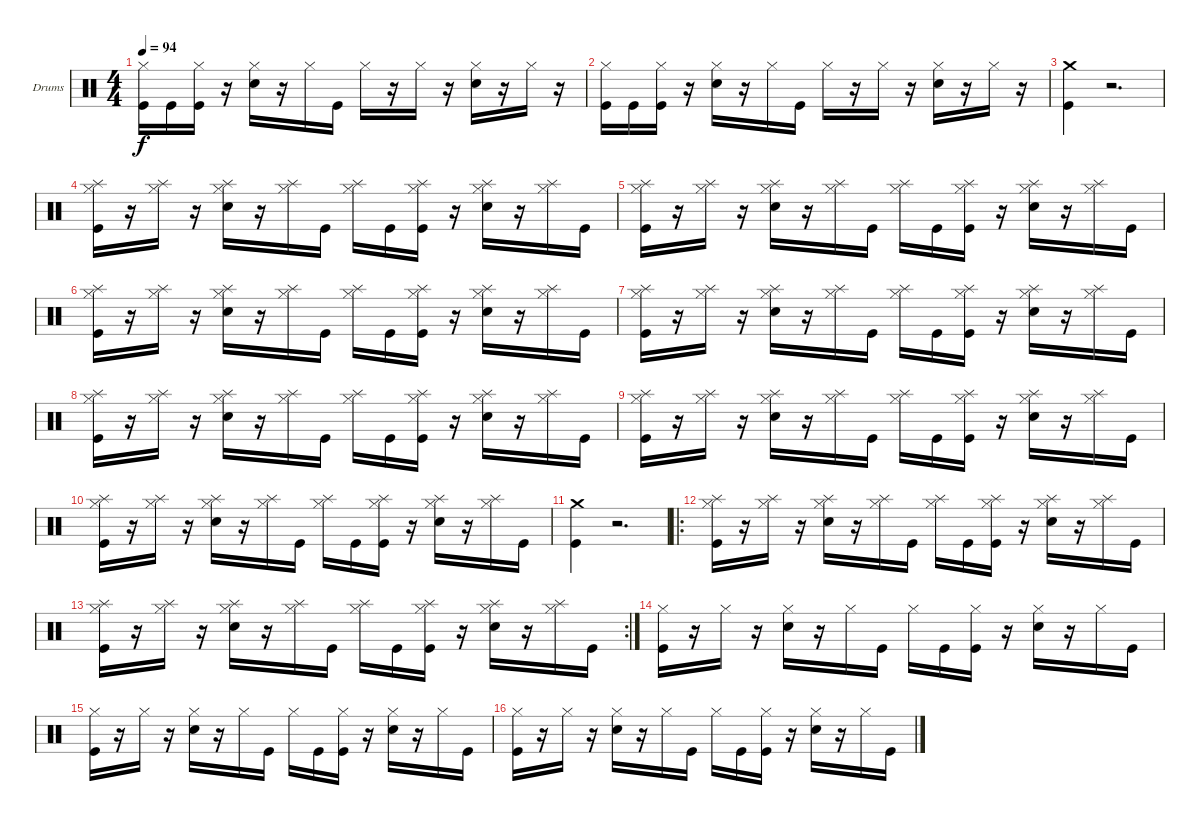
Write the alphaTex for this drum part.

\defaultSystemsLayout 4
\bracketExtendMode groupsimilarinstruments
\firstSystemTrackNameOrientation horizontal
\otherSystemsTrackNameOrientation horizontal
\track ("Lori Peters (Drums)" "Drums") {instrument percussion}
\staff {score}
\articulation defaults
\ts (4 4)
\tempo 94
\clef neutral
\ks c
("Hi-Hat (closed)" "Kick (hit)").16{dy f} "Kick (hit)".16 ("Hi-Hat (closed)" "Kick (hit)").16 r.16 ("Hi-Hat (closed)" "Snare (hit) 2").16 r.16 "Hi-Hat (closed)".16 "Kick (hit)".16 "Hi-Hat (closed)".16 r.16 "Hi-Hat (closed)".16 r.16 ("Hi-Hat (closed)" "Snare (hit) 2").16 r.16 "Hi-Hat (closed)".16 r.16 |
("Hi-Hat (closed)" "Kick (hit)").16 "Kick (hit)".16 ("Hi-Hat (closed)" "Kick (hit)").16 r.16 ("Hi-Hat (closed)" "Snare (hit) 2").16 r.16 "Hi-Hat (closed)".16 "Kick (hit)".16 "Hi-Hat (closed)".16 r.16 "Hi-Hat (closed)".16 r.16 ("Hi-Hat (closed)" "Snare (hit) 2").16 r.16 "Hi-Hat (closed)".16 r.16 |
\scale
0.333333 ("Crash medium (hit)" "Kick (hit)").4 r.2{d} |
\scale
0.333333 ("Hi-Hat (closed)" "Kick (hit)" "Splash (hit)").16 r.16 ("Hi-Hat (closed)" "Splash (hit)").16 r.16 ("Hi-Hat (closed)" "Snare (hit) 2" "Splash (hit)").16 r.16 ("Hi-Hat (closed)" "Splash (hit)").16 "Kick (hit)".16 ("Hi-Hat (closed)" "Splash (hit)").16 "Kick (hit)".16 ("Hi-Hat (closed)" "Kick (hit)" "Splash (hit)").16 r.16 ("Hi-Hat (closed)" "Snare (hit) 2" "Splash (hit)").16 r.16 ("Hi-Hat (closed)" "Splash (hit)").16 "Kick (hit)".16 |
\scale
0.333333 ("Hi-Hat (closed)" "Kick (hit)" "Splash (hit)").16 r.16 ("Hi-Hat (closed)" "Splash (hit)").16 r.16 ("Hi-Hat (closed)" "Snare (hit) 2" "Splash (hit)").16 r.16 ("Hi-Hat (closed)" "Splash (hit)").16 "Kick (hit)".16 ("Hi-Hat (closed)" "Splash (hit)").16 "Kick (hit)".16 ("Hi-Hat (closed)" "Kick (hit)" "Splash (hit)").16 r.16 ("Hi-Hat (closed)" "Snare (hit) 2" "Splash (hit)").16 r.16 ("Hi-Hat (closed)" "Splash (hit)").16 "Kick (hit)".16 |
\scale
0.333333 ("Hi-Hat (closed)" "Kick (hit)" "Splash (hit)").16 r.16 ("Hi-Hat (closed)" "Splash (hit)").16 r.16 ("Hi-Hat (closed)" "Snare (hit) 2" "Splash (hit)").16 r.16 ("Hi-Hat (closed)" "Splash (hit)").16 "Kick (hit)".16 ("Hi-Hat (closed)" "Splash (hit)").16 "Kick (hit)".16 ("Hi-Hat (closed)" "Kick (hit)" "Splash (hit)").16 r.16 ("Hi-Hat (closed)" "Snare (hit) 2" "Splash (hit)").16 r.16 ("Hi-Hat (closed)" "Splash (hit)").16 "Kick (hit)".16 |
\scale
0.333333 ("Hi-Hat (closed)" "Kick (hit)" "Splash (hit)").16 r.16 ("Hi-Hat (closed)" "Splash (hit)").16 r.16 ("Hi-Hat (closed)" "Snare (hit) 2" "Splash (hit)").16 r.16 ("Hi-Hat (closed)" "Splash (hit)").16 "Kick (hit)".16 ("Hi-Hat (closed)" "Splash (hit)").16 "Kick (hit)".16 ("Hi-Hat (closed)" "Kick (hit)" "Splash (hit)").16 r.16 ("Hi-Hat (closed)" "Snare (hit) 2" "Splash (hit)").16 r.16 ("Hi-Hat (closed)" "Splash (hit)").16 "Kick (hit)".16 |
\scale
0.333333 ("Hi-Hat (closed)" "Kick (hit)" "Splash (hit)").16 r.16 ("Hi-Hat (closed)" "Splash (hit)").16 r.16 ("Hi-Hat (closed)" "Snare (hit) 2" "Splash (hit)").16 r.16 ("Hi-Hat (closed)" "Splash (hit)").16 "Kick (hit)".16 ("Hi-Hat (closed)" "Splash (hit)").16 "Kick (hit)".16 ("Hi-Hat (closed)" "Kick (hit)" "Splash (hit)").16 r.16 ("Hi-Hat (closed)" "Snare (hit) 2" "Splash (hit)").16 r.16 ("Hi-Hat (closed)" "Splash (hit)").16 "Kick (hit)".16 |
\scale
0.333333 ("Hi-Hat (closed)" "Kick (hit)" "Splash (hit)").16 r.16 ("Hi-Hat (closed)" "Splash (hit)").16 r.16 ("Hi-Hat (closed)" "Snare (hit) 2" "Splash (hit)").16 r.16 ("Hi-Hat (closed)" "Splash (hit)").16 "Kick (hit)".16 ("Hi-Hat (closed)" "Splash (hit)").16 "Kick (hit)".16 ("Hi-Hat (closed)" "Kick (hit)" "Splash (hit)").16 r.16 ("Hi-Hat (closed)" "Snare (hit) 2" "Splash (hit)").16 r.16 ("Hi-Hat (closed)" "Splash (hit)").16 "Kick (hit)".16 |
\scale
0.333333 ("Hi-Hat (closed)" "Kick (hit)" "Splash (hit)").16 r.16 ("Hi-Hat (closed)" "Splash (hit)").16 r.16 ("Hi-Hat (closed)" "Snare (hit) 2" "Splash (hit)").16 r.16 ("Hi-Hat (closed)" "Splash (hit)").16 "Kick (hit)".16 ("Hi-Hat (closed)" "Splash (hit)").16 "Kick (hit)".16 ("Hi-Hat (closed)" "Kick (hit)" "Splash (hit)").16 r.16 ("Hi-Hat (closed)" "Snare (hit) 2" "Splash (hit)").16 r.16 ("Hi-Hat (closed)" "Splash (hit)").16 "Kick (hit)".16 |
\scale
0.333333 ("Crash medium (hit)" "Kick (hit)").4 r.2{d} |
\ro
\scale
0.343434 ("Hi-Hat (closed)" "Kick (hit)" "Splash (hit)").16 r.16 ("Hi-Hat (closed)" "Splash (hit)").16 r.16 ("Hi-Hat (closed)" "Snare (hit) 2" "Splash (hit)").16 r.16 ("Hi-Hat (closed)" "Splash (hit)").16 "Kick (hit)".16 ("Hi-Hat (closed)" "Splash (hit)").16 "Kick (hit)".16 ("Hi-Hat (closed)" "Kick (hit)" "Splash (hit)").16 r.16 ("Hi-Hat (closed)" "Snare (hit) 2" "Splash (hit)").16 r.16 ("Hi-Hat (closed)" "Splash (hit)").16 "Kick (hit)".16 |
\rc 2
\scale
0.313131 ("Hi-Hat (closed)" "Kick (hit)" "Splash (hit)").16 r.16 ("Hi-Hat (closed)" "Splash (hit)").16 r.16 ("Hi-Hat (closed)" "Snare (hit) 2" "Splash (hit)").16 r.16 ("Hi-Hat (closed)" "Splash (hit)").16 "Kick (hit)".16 ("Hi-Hat (closed)" "Splash (hit)").16 "Kick (hit)".16 ("Hi-Hat (closed)" "Kick (hit)" "Splash (hit)").16 r.16 ("Hi-Hat (closed)" "Snare (hit) 2" "Splash (hit)").16 r.16 ("Hi-Hat (closed)" "Splash (hit)").16 "Kick (hit)".16 |
\scale
0.343434 ("Hi-Hat (closed)" "Kick (hit)").16 r.16 "Hi-Hat (closed)".16 r.16 ("Hi-Hat (closed)" "Snare (hit) 2").16 r.16 "Hi-Hat (closed)".16 "Kick (hit)".16 "Hi-Hat (closed)".16 "Kick (hit)".16 ("Hi-Hat (closed)" "Kick (hit)").16 r.16 ("Hi-Hat (closed)" "Snare (hit) 2").16 r.16 "Hi-Hat (closed)".16 "Kick (hit)".16 |
\scale
0.356322 ("Hi-Hat (closed)" "Kick (hit)").16 r.16 "Hi-Hat (closed)".16 r.16 ("Hi-Hat (closed)" "Snare (hit) 2").16 r.16 "Hi-Hat (closed)".16 "Kick (hit)".16 "Hi-Hat (closed)".16 "Kick (hit)".16 ("Hi-Hat (closed)" "Kick (hit)").16 r.16 ("Hi-Hat (closed)" "Snare (hit) 2").16 r.16 "Hi-Hat (closed)".16 "Kick (hit)".16 |
("Hi-Hat (closed)" "Kick (hit)").16 r.16 "Hi-Hat (closed)".16 r.16 ("Hi-Hat (closed)" "Snare (hit) 2").16 r.16 "Hi-Hat (closed)".16 "Kick (hit)".16 "Hi-Hat (closed)".16 "Kick (hit)".16 ("Hi-Hat (closed)" "Kick (hit)").16 r.16 ("Hi-Hat (closed)" "Snare (hit) 2").16 r.16 "Hi-Hat (closed)".16 "Kick (hit)".16
